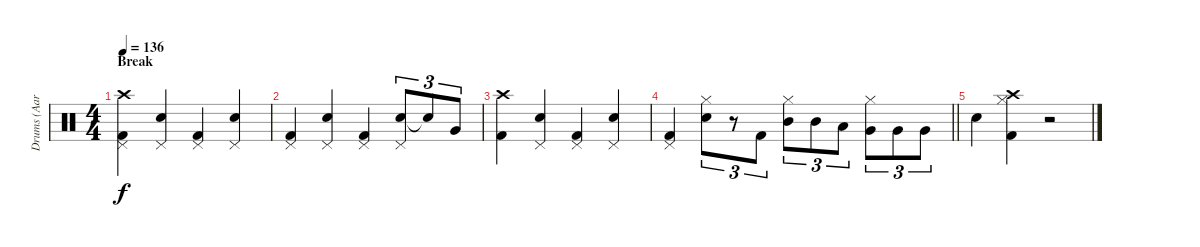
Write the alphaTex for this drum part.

\track ("Drums (Aaron Solowoniuk)" "Drums (Aar") {instrument percussion}
\staff {score}
\articulation defaults
\ts (4 4)
\section ("" "Break")
\tempo 136
\clef neutral
\ks c
("Kick (hit) 2" "Pedal Hi-Hat (hit)" "Crash high (hit)").4{dy f} ("Electric Snare (hit)" "Pedal Hi-Hat (hit)").4 ("Kick (hit) 2" "Pedal Hi-Hat (hit)").4 ("Electric Snare (hit)" "Pedal Hi-Hat (hit)").4 |
("Kick (hit) 2" "Pedal Hi-Hat (hit)").4 ("Electric Snare (hit)" "Pedal Hi-Hat (hit)").4 ("Kick (hit) 2" "Pedal Hi-Hat (hit)").4 ("Electric Snare (hit)" "Pedal Hi-Hat (hit)").8{tu (3 2)} "Electric Snare (hit)"{t}.8{tu (3 2)} "Very Low Tom (hit)".8{tu (3 2)} |
("Kick (hit) 2" "Crash high (hit)").4 ("Electric Snare (hit)" "Pedal Hi-Hat (hit)").4 ("Kick (hit) 2" "Pedal Hi-Hat (hit)").4 ("Electric Snare (hit)" "Pedal Hi-Hat (hit)").4 |
\barLineRight lightlight
("Kick (hit) 2" "Pedal Hi-Hat (hit)").4 ("Electric Snare (hit)" "Hi-Hat (closed)").8{tu (3 2)} r.8{tu (3 2)} "Kick (hit) 2".8{tu (3 2)} ("Hi-Hat (closed)" "Mid Tom (hit)").8{tu (3 2)} "Mid Tom (hit)".8{tu (3 2)} "Low Tom (hit)".8{tu (3 2)} ("Hi-Hat (closed)" "Very Low Tom (hit)").8{tu (3 2)} "Very Low Tom (hit)".8{tu (3 2)} "Very Low Tom (hit)".8{tu (3 2)} |
"Electric Snare (hit)".4 ("Hi-Hat (closed)" "Kick (hit) 2" "Crash high (hit)").4 r.2
